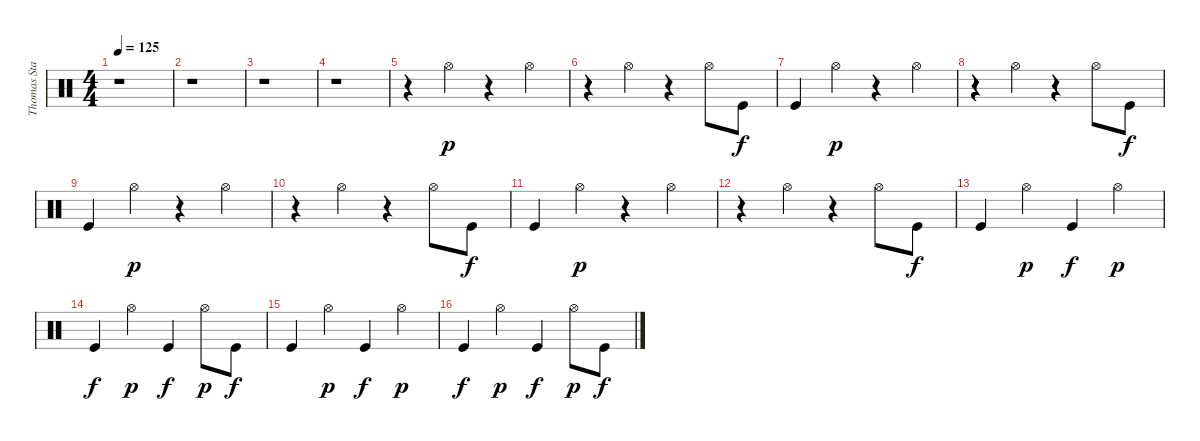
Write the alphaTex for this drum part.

\track ("Thomas Stauch" "Thomas Sta") {instrument percussion}
\staff {score}
\articulation defaults
\ts (4 4)
\tempo 125
\clef neutral
\ks c
r.1{dy p} |
r.1 |
r.1 |
r.1 |
r.4 "Hi-Hat (open)".4 r.4 "Hi-Hat (open)".4 |
r.4 "Hi-Hat (open)".4 r.4 "Hi-Hat (open)".8 "Kick (hit)".8{dy f} |
"Kick (hit)".4 "Hi-Hat (open)".4{dy p} r.4 "Hi-Hat (open)".4 |
r.4 "Hi-Hat (open)".4 r.4 "Hi-Hat (open)".8 "Kick (hit)".8{dy f} |
"Kick (hit)".4 "Hi-Hat (open)".4{dy p} r.4 "Hi-Hat (open)".4 |
r.4 "Hi-Hat (open)".4 r.4 "Hi-Hat (open)".8 "Kick (hit)".8{dy f} |
"Kick (hit)".4 "Hi-Hat (open)".4{dy p} r.4 "Hi-Hat (open)".4 |
r.4 "Hi-Hat (open)".4 r.4 "Hi-Hat (open)".8 "Kick (hit)".8{dy f} |
"Kick (hit)".4 "Hi-Hat (open)".4{dy p} "Kick (hit)".4{dy f} "Hi-Hat (open)".4{dy p} |
"Kick (hit)".4{dy f} "Hi-Hat (open)".4{dy p} "Kick (hit)".4{dy f} "Hi-Hat (open)".8{dy p} "Kick (hit)".8{dy f} |
"Kick (hit)".4 "Hi-Hat (open)".4{dy p} "Kick (hit)".4{dy f} "Hi-Hat (open)".4{dy p} |
"Kick (hit)".4{dy f} "Hi-Hat (open)".4{dy p} "Kick (hit)".4{dy f} "Hi-Hat (open)".8{dy p} "Kick (hit)".8{dy f}
